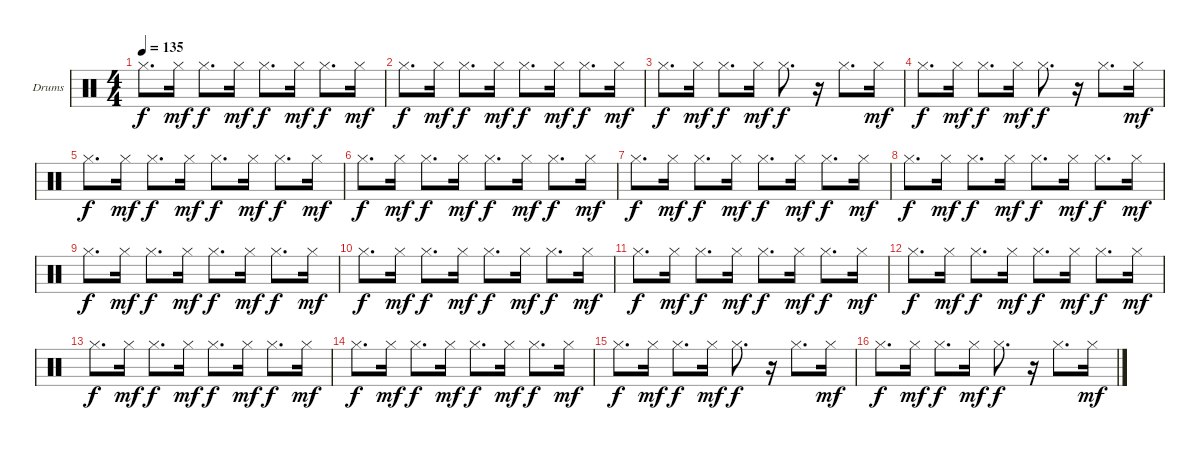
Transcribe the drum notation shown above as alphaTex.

\bracketExtendMode groupsimilarinstruments
\firstSystemTrackNameOrientation horizontal
\otherSystemsTrackNameOrientation horizontal
\track ("HH" "Drums") {instrument percussion}
\staff {score}
\articulation defaults
\ts (4 4)
\tempo 135
\clef neutral
\ks c "Hi-Hat (closed)".8{d dy f} "Hi-Hat (closed)".16{dy mf} "Hi-Hat (closed)".8{d dy f} "Hi-Hat (closed)".16{dy mf} "Hi-Hat (closed)".8{d dy f} "Hi-Hat (closed)".16{dy mf} "Hi-Hat (closed)".8{d dy f} "Hi-Hat (closed)".16{dy mf}
|
"Hi-Hat (closed)".8{d dy f} "Hi-Hat (closed)".16{dy mf} "Hi-Hat (closed)".8{d dy f} "Hi-Hat (closed)".16{dy mf} "Hi-Hat (closed)".8{d dy f} "Hi-Hat (closed)".16{dy mf} "Hi-Hat (closed)".8{d dy f} "Hi-Hat (closed)".16{dy mf} |
"Hi-Hat (closed)".8{d dy f} "Hi-Hat (closed)".16{dy mf} "Hi-Hat (closed)".8{d dy f} "Hi-Hat (closed)".16{dy mf} "Hi-Hat (closed)".8{d dy f} r.16 "Hi-Hat (closed)".8{d} "Hi-Hat (closed)".16{dy mf} |
"Hi-Hat (closed)".8{d dy f} "Hi-Hat (closed)".16{dy mf} "Hi-Hat (closed)".8{d dy f} "Hi-Hat (closed)".16{dy mf} "Hi-Hat (closed)".8{d dy f} r.16 "Hi-Hat (closed)".8{d} "Hi-Hat (closed)".16{dy mf} |
"Hi-Hat (closed)".8{d dy f} "Hi-Hat (closed)".16{dy mf} "Hi-Hat (closed)".8{d dy f} "Hi-Hat (closed)".16{dy mf} "Hi-Hat (closed)".8{d dy f} "Hi-Hat (closed)".16{dy mf} "Hi-Hat (closed)".8{d dy f} "Hi-Hat (closed)".16{dy mf} |
"Hi-Hat (closed)".8{d dy f} "Hi-Hat (closed)".16{dy mf} "Hi-Hat (closed)".8{d dy f} "Hi-Hat (closed)".16{dy mf} "Hi-Hat (closed)".8{d dy f} "Hi-Hat (closed)".16{dy mf} "Hi-Hat (closed)".8{d dy f} "Hi-Hat (closed)".16{dy mf} |
"Hi-Hat (closed)".8{d dy f} "Hi-Hat (closed)".16{dy mf} "Hi-Hat (closed)".8{d dy f} "Hi-Hat (closed)".16{dy mf} "Hi-Hat (closed)".8{d dy f} "Hi-Hat (closed)".16{dy mf} "Hi-Hat (closed)".8{d dy f} "Hi-Hat (closed)".16{dy mf} |
"Hi-Hat (closed)".8{d dy f} "Hi-Hat (closed)".16{dy mf} "Hi-Hat (closed)".8{d dy f} "Hi-Hat (closed)".16{dy mf} "Hi-Hat (closed)".8{d dy f} "Hi-Hat (closed)".16{dy mf} "Hi-Hat (closed)".8{d dy f} "Hi-Hat (closed)".16{dy mf} |
"Hi-Hat (closed)".8{d dy f} "Hi-Hat (closed)".16{dy mf} "Hi-Hat (closed)".8{d dy f} "Hi-Hat (closed)".16{dy mf} "Hi-Hat (closed)".8{d dy f} "Hi-Hat (closed)".16{dy mf} "Hi-Hat (closed)".8{d dy f} "Hi-Hat (closed)".16{dy mf} |
"Hi-Hat (closed)".8{d dy f} "Hi-Hat (closed)".16{dy mf} "Hi-Hat (closed)".8{d dy f} "Hi-Hat (closed)".16{dy mf} "Hi-Hat (closed)".8{d dy f} "Hi-Hat (closed)".16{dy mf} "Hi-Hat (closed)".8{d dy f} "Hi-Hat (closed)".16{dy mf} |
"Hi-Hat (closed)".8{d dy f} "Hi-Hat (closed)".16{dy mf} "Hi-Hat (closed)".8{d dy f} "Hi-Hat (closed)".16{dy mf} "Hi-Hat (closed)".8{d dy f} "Hi-Hat (closed)".16{dy mf} "Hi-Hat (closed)".8{d dy f} "Hi-Hat (closed)".16{dy mf} |
"Hi-Hat (closed)".8{d dy f} "Hi-Hat (closed)".16{dy mf} "Hi-Hat (closed)".8{d dy f} "Hi-Hat (closed)".16{dy mf} "Hi-Hat (closed)".8{d dy f} "Hi-Hat (closed)".16{dy mf} "Hi-Hat (closed)".8{d dy f} "Hi-Hat (closed)".16{dy mf} |
"Hi-Hat (closed)".8{d dy f} "Hi-Hat (closed)".16{dy mf} "Hi-Hat (closed)".8{d dy f} "Hi-Hat (closed)".16{dy mf} "Hi-Hat (closed)".8{d dy f} "Hi-Hat (closed)".16{dy mf} "Hi-Hat (closed)".8{d dy f} "Hi-Hat (closed)".16{dy mf} |
"Hi-Hat (closed)".8{d dy f} "Hi-Hat (closed)".16{dy mf} "Hi-Hat (closed)".8{d dy f} "Hi-Hat (closed)".16{dy mf} "Hi-Hat (closed)".8{d dy f} "Hi-Hat (closed)".16{dy mf} "Hi-Hat (closed)".8{d dy f} "Hi-Hat (closed)".16{dy mf} |
"Hi-Hat (closed)".8{d dy f} "Hi-Hat (closed)".16{dy mf} "Hi-Hat (closed)".8{d dy f} "Hi-Hat (closed)".16{dy mf} "Hi-Hat (closed)".8{d dy f} r.16 "Hi-Hat (closed)".8{d} "Hi-Hat (closed)".16{dy mf} |
"Hi-Hat (closed)".8{d dy f} "Hi-Hat (closed)".16{dy mf} "Hi-Hat (closed)".8{d dy f} "Hi-Hat (closed)".16{dy mf} "Hi-Hat (closed)".8{d dy f} r.16 "Hi-Hat (closed)".8{d} "Hi-Hat (closed)".16{dy mf}
